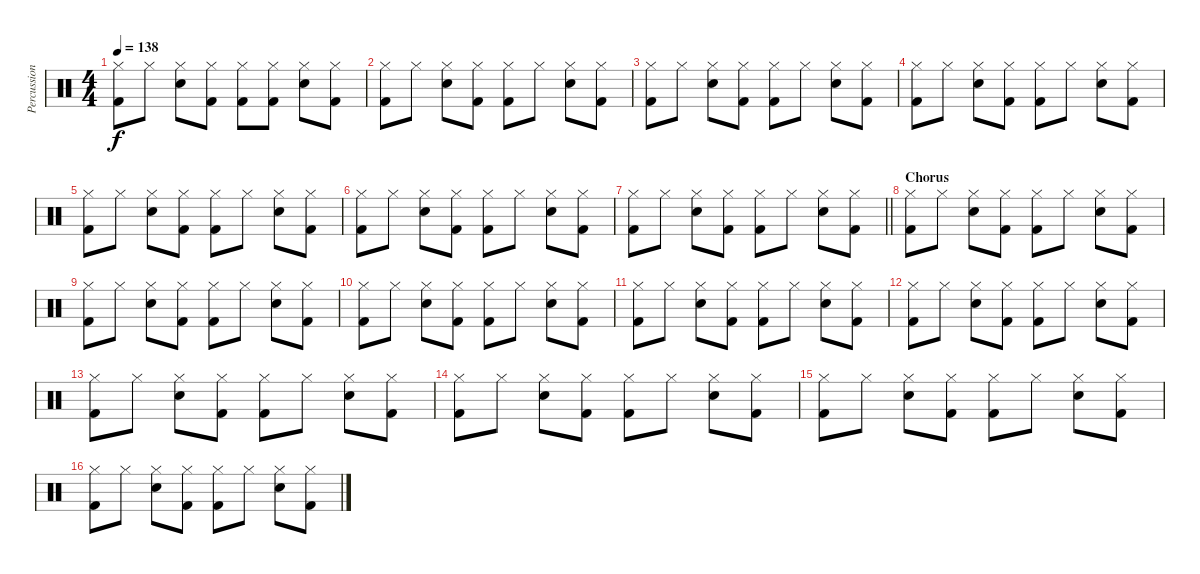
\track ("Percussion" "Percussion") {instrument percussion}
\staff {score}
\articulation defaults
\ts (4 4)
\tempo 138
\clef neutral
\ks c
("Hi-Hat (closed)" "Kick (hit) 2").8{dy f} "Hi-Hat (closed)".8 ("Hi-Hat (closed)" "Electric Snare (hit)").8 ("Hi-Hat (closed)" "Kick (hit) 2").8 ("Hi-Hat (closed)" "Kick (hit) 2").8 ("Hi-Hat (closed)" "Kick (hit) 2").8 ("Hi-Hat (closed)" "Electric Snare (hit)").8 ("Hi-Hat (closed)" "Kick (hit) 2").8 |
("Hi-Hat (closed)" "Kick (hit) 2").8 "Hi-Hat (closed)".8 ("Hi-Hat (closed)" "Electric Snare (hit)").8 ("Hi-Hat (closed)" "Kick (hit) 2").8 ("Hi-Hat (closed)" "Kick (hit) 2").8 "Hi-Hat (closed)".8 ("Hi-Hat (closed)" "Electric Snare (hit)").8 ("Hi-Hat (closed)" "Kick (hit) 2").8 |
("Hi-Hat (closed)" "Kick (hit) 2").8 "Hi-Hat (closed)".8 ("Hi-Hat (closed)" "Electric Snare (hit)").8 ("Hi-Hat (closed)" "Kick (hit) 2").8 ("Hi-Hat (closed)" "Kick (hit) 2").8 "Hi-Hat (closed)".8 ("Hi-Hat (closed)" "Electric Snare (hit)").8 ("Hi-Hat (closed)" "Kick (hit) 2").8 |
("Hi-Hat (closed)" "Kick (hit) 2").8 "Hi-Hat (closed)".8 ("Hi-Hat (closed)" "Electric Snare (hit)").8 ("Hi-Hat (closed)" "Kick (hit) 2").8 ("Hi-Hat (closed)" "Kick (hit) 2").8 "Hi-Hat (closed)".8 ("Hi-Hat (closed)" "Electric Snare (hit)").8 ("Hi-Hat (closed)" "Kick (hit) 2").8 |
("Hi-Hat (closed)" "Kick (hit) 2").8 "Hi-Hat (closed)".8 ("Hi-Hat (closed)" "Electric Snare (hit)").8 ("Hi-Hat (closed)" "Kick (hit) 2").8 ("Hi-Hat (closed)" "Kick (hit) 2").8 "Hi-Hat (closed)".8 ("Hi-Hat (closed)" "Electric Snare (hit)").8 ("Hi-Hat (closed)" "Kick (hit) 2").8 |
("Hi-Hat (closed)" "Kick (hit) 2").8 "Hi-Hat (closed)".8 ("Hi-Hat (closed)" "Electric Snare (hit)").8 ("Hi-Hat (closed)" "Kick (hit) 2").8 ("Hi-Hat (closed)" "Kick (hit) 2").8 "Hi-Hat (closed)".8 ("Hi-Hat (closed)" "Electric Snare (hit)").8 ("Hi-Hat (closed)" "Kick (hit) 2").8 |
\barLineRight lightlight
("Hi-Hat (closed)" "Kick (hit) 2").8 "Hi-Hat (closed)".8 ("Hi-Hat (closed)" "Electric Snare (hit)").8 ("Hi-Hat (closed)" "Kick (hit) 2").8 ("Hi-Hat (closed)" "Kick (hit) 2").8 "Hi-Hat (closed)".8 ("Hi-Hat (closed)" "Electric Snare (hit)").8 ("Hi-Hat (closed)" "Kick (hit) 2").8 |
\section ("" "Chorus")
("Hi-Hat (closed)" "Kick (hit) 2").8 "Hi-Hat (closed)".8 ("Hi-Hat (closed)" "Electric Snare (hit)").8 ("Hi-Hat (closed)" "Kick (hit) 2").8 ("Hi-Hat (closed)" "Kick (hit) 2").8 "Hi-Hat (closed)".8 ("Hi-Hat (closed)" "Electric Snare (hit)").8 ("Hi-Hat (closed)" "Kick (hit) 2").8 |
("Hi-Hat (closed)" "Kick (hit) 2").8 "Hi-Hat (closed)".8 ("Hi-Hat (closed)" "Electric Snare (hit)").8 ("Hi-Hat (closed)" "Kick (hit) 2").8 ("Hi-Hat (closed)" "Kick (hit) 2").8 "Hi-Hat (closed)".8 ("Hi-Hat (closed)" "Electric Snare (hit)").8 ("Hi-Hat (closed)" "Kick (hit) 2").8 |
("Hi-Hat (closed)" "Kick (hit) 2").8 "Hi-Hat (closed)".8 ("Hi-Hat (closed)" "Electric Snare (hit)").8 ("Hi-Hat (closed)" "Kick (hit) 2").8 ("Hi-Hat (closed)" "Kick (hit) 2").8 "Hi-Hat (closed)".8 ("Hi-Hat (closed)" "Electric Snare (hit)").8 ("Hi-Hat (closed)" "Kick (hit) 2").8 |
("Hi-Hat (closed)" "Kick (hit) 2").8 "Hi-Hat (closed)".8 ("Hi-Hat (closed)" "Electric Snare (hit)").8 ("Hi-Hat (closed)" "Kick (hit) 2").8 ("Hi-Hat (closed)" "Kick (hit) 2").8 "Hi-Hat (closed)".8 ("Hi-Hat (closed)" "Electric Snare (hit)").8 ("Hi-Hat (closed)" "Kick (hit) 2").8 |
("Hi-Hat (closed)" "Kick (hit) 2").8 "Hi-Hat (closed)".8 ("Hi-Hat (closed)" "Electric Snare (hit)").8 ("Hi-Hat (closed)" "Kick (hit) 2").8 ("Hi-Hat (closed)" "Kick (hit) 2").8 "Hi-Hat (closed)".8 ("Hi-Hat (closed)" "Electric Snare (hit)").8 ("Hi-Hat (closed)" "Kick (hit) 2").8 |
("Hi-Hat (closed)" "Kick (hit) 2").8 "Hi-Hat (closed)".8 ("Hi-Hat (closed)" "Electric Snare (hit)").8 ("Hi-Hat (closed)" "Kick (hit) 2").8 ("Hi-Hat (closed)" "Kick (hit) 2").8 "Hi-Hat (closed)".8 ("Hi-Hat (closed)" "Electric Snare (hit)").8 ("Hi-Hat (closed)" "Kick (hit) 2").8 |
("Hi-Hat (closed)" "Kick (hit) 2").8 "Hi-Hat (closed)".8 ("Hi-Hat (closed)" "Electric Snare (hit)").8 ("Hi-Hat (closed)" "Kick (hit) 2").8 ("Hi-Hat (closed)" "Kick (hit) 2").8 "Hi-Hat (closed)".8 ("Hi-Hat (closed)" "Electric Snare (hit)").8 ("Hi-Hat (closed)" "Kick (hit) 2").8 |
("Hi-Hat (closed)" "Kick (hit) 2").8 "Hi-Hat (closed)".8 ("Hi-Hat (closed)" "Electric Snare (hit)").8 ("Hi-Hat (closed)" "Kick (hit) 2").8 ("Hi-Hat (closed)" "Kick (hit) 2").8 "Hi-Hat (closed)".8 ("Hi-Hat (closed)" "Electric Snare (hit)").8 ("Hi-Hat (closed)" "Kick (hit) 2").8 |
("Hi-Hat (closed)" "Kick (hit) 2").8 "Hi-Hat (closed)".8 ("Hi-Hat (closed)" "Electric Snare (hit)").8 ("Hi-Hat (closed)" "Kick (hit) 2").8 ("Hi-Hat (closed)" "Kick (hit) 2").8 "Hi-Hat (closed)".8 ("Hi-Hat (closed)" "Electric Snare (hit)").8 ("Hi-Hat (closed)" "Kick (hit) 2").8
